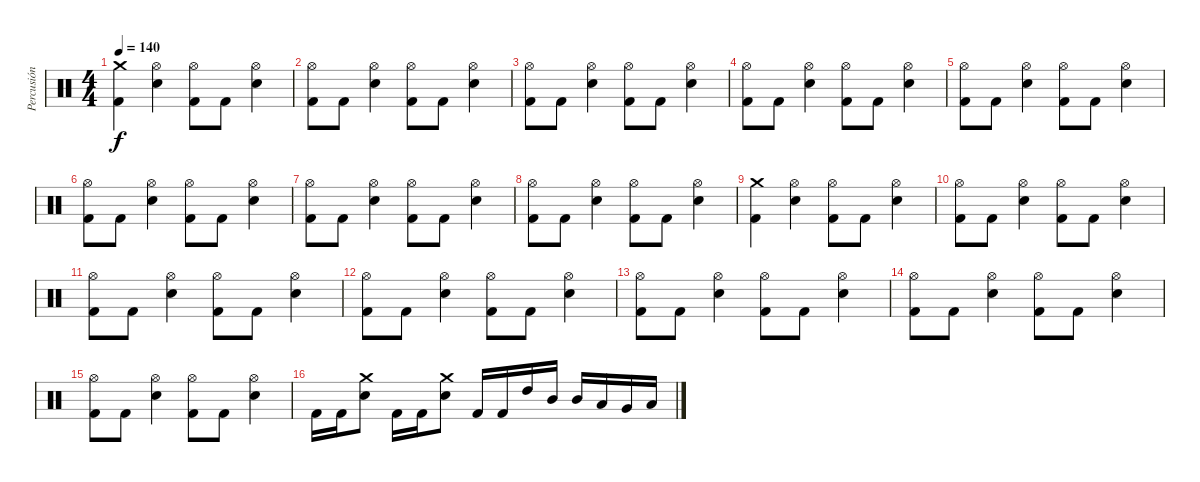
\track ("Percusión" "Percusión") {instrument percussion}
\staff {score}
\articulation defaults
\ts (4 4)
\tempo 140
\clef neutral
\ks c
("Crash medium (hit)" "Kick (hit) 2").4{dy f} ("Hi-Hat (open)" "Electric Snare (hit)").4 ("Hi-Hat (open)" "Kick (hit) 2").8 "Kick (hit) 2".8 ("Hi-Hat (open)" "Electric Snare (hit)").4 |
("Hi-Hat (open)" "Kick (hit) 2").8 "Kick (hit) 2".8 ("Hi-Hat (open)" "Electric Snare (hit)").4 ("Hi-Hat (open)" "Kick (hit) 2").8 "Kick (hit) 2".8 ("Hi-Hat (open)" "Electric Snare (hit)").4 |
("Hi-Hat (open)" "Kick (hit) 2").8 "Kick (hit) 2".8 ("Hi-Hat (open)" "Electric Snare (hit)").4 ("Hi-Hat (open)" "Kick (hit) 2").8 "Kick (hit) 2".8 ("Hi-Hat (open)" "Electric Snare (hit)").4 |
("Hi-Hat (open)" "Kick (hit) 2").8 "Kick (hit) 2".8 ("Hi-Hat (open)" "Electric Snare (hit)").4 ("Hi-Hat (open)" "Kick (hit) 2").8 "Kick (hit) 2".8 ("Hi-Hat (open)" "Electric Snare (hit)").4 |
("Hi-Hat (open)" "Kick (hit) 2").8 "Kick (hit) 2".8 ("Hi-Hat (open)" "Electric Snare (hit)").4 ("Hi-Hat (open)" "Kick (hit) 2").8 "Kick (hit) 2".8 ("Hi-Hat (open)" "Electric Snare (hit)").4 |
("Hi-Hat (open)" "Kick (hit) 2").8 "Kick (hit) 2".8 ("Hi-Hat (open)" "Electric Snare (hit)").4 ("Hi-Hat (open)" "Kick (hit) 2").8 "Kick (hit) 2".8 ("Hi-Hat (open)" "Electric Snare (hit)").4 |
("Hi-Hat (open)" "Kick (hit) 2").8 "Kick (hit) 2".8 ("Hi-Hat (open)" "Electric Snare (hit)").4 ("Hi-Hat (open)" "Kick (hit) 2").8 "Kick (hit) 2".8 ("Hi-Hat (open)" "Electric Snare (hit)").4 |
("Hi-Hat (open)" "Kick (hit) 2").8 "Kick (hit) 2".8 ("Hi-Hat (open)" "Electric Snare (hit)").4 ("Hi-Hat (open)" "Kick (hit) 2").8 "Kick (hit) 2".8 ("Hi-Hat (open)" "Electric Snare (hit)").4 |
("Crash medium (hit)" "Kick (hit) 2").4 ("Hi-Hat (open)" "Electric Snare (hit)").4 ("Hi-Hat (open)" "Kick (hit) 2").8 "Kick (hit) 2".8 ("Hi-Hat (open)" "Electric Snare (hit)").4 |
("Hi-Hat (open)" "Kick (hit) 2").8 "Kick (hit) 2".8 ("Hi-Hat (open)" "Electric Snare (hit)").4 ("Hi-Hat (open)" "Kick (hit) 2").8 "Kick (hit) 2".8 ("Hi-Hat (open)" "Electric Snare (hit)").4 |
("Hi-Hat (open)" "Kick (hit) 2").8 "Kick (hit) 2".8 ("Hi-Hat (open)" "Electric Snare (hit)").4 ("Hi-Hat (open)" "Kick (hit) 2").8 "Kick (hit) 2".8 ("Hi-Hat (open)" "Electric Snare (hit)").4 |
("Hi-Hat (open)" "Kick (hit) 2").8 "Kick (hit) 2".8 ("Hi-Hat (open)" "Electric Snare (hit)").4 ("Hi-Hat (open)" "Kick (hit) 2").8 "Kick (hit) 2".8 ("Hi-Hat (open)" "Electric Snare (hit)").4 |
("Hi-Hat (open)" "Kick (hit) 2").8 "Kick (hit) 2".8 ("Hi-Hat (open)" "Electric Snare (hit)").4 ("Hi-Hat (open)" "Kick (hit) 2").8 "Kick (hit) 2".8 ("Hi-Hat (open)" "Electric Snare (hit)").4 |
("Hi-Hat (open)" "Kick (hit) 2").8 "Kick (hit) 2".8 ("Hi-Hat (open)" "Electric Snare (hit)").4 ("Hi-Hat (open)" "Kick (hit) 2").8 "Kick (hit) 2".8 ("Hi-Hat (open)" "Electric Snare (hit)").4 |
("Hi-Hat (open)" "Kick (hit) 2").8 "Kick (hit) 2".8 ("Hi-Hat (open)" "Electric Snare (hit)").4 ("Hi-Hat (open)" "Kick (hit) 2").8 "Kick (hit) 2".8 ("Hi-Hat (open)" "Electric Snare (hit)").4 |
"Kick (hit) 2".16 "Kick (hit) 2".16 ("Crash medium (hit)" "Electric Snare (hit)").8 "Kick (hit) 2".16 "Kick (hit) 2".16 ("Crash medium (hit)" "Electric Snare (hit)").8 "Kick (hit) 2".16 "Kick (hit) 2".16 "High Tom (hit)".16 "Mid Tom (hit)".16 "Mid Tom (hit)".16 "Low Tom (hit)".16 "Very Low Tom (hit)".16 "Low Floor Tom (hit)".16
